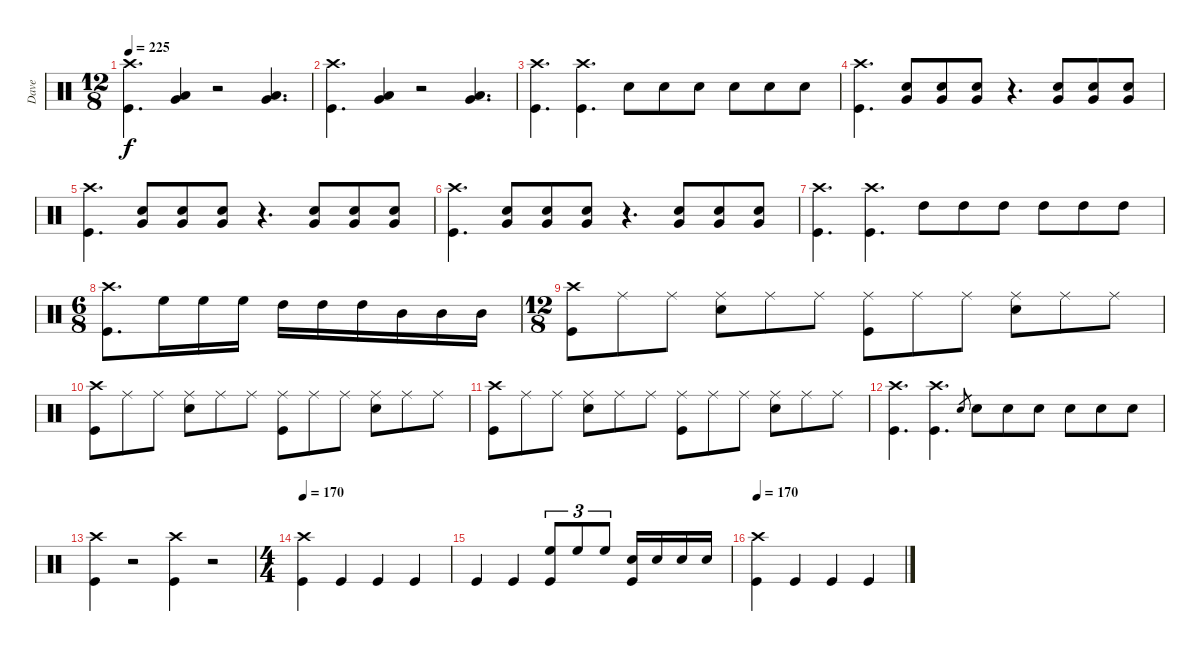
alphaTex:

\track ("Dave" "Dave") {instrument percussion}
\staff {score}
\articulation defaults
\ts (12 8)
\tempo 225
\clef neutral
\ks c
("Crash high (hit)" "Kick (hit)").4{d dy f} ("Very Low Tom (hit)" "Low Floor Tom (hit)").4 r.2 ("Very Low Tom (hit)" "Low Floor Tom (hit)").4{d} |
("Crash high (hit)" "Kick (hit)").4{d} ("Very Low Tom (hit)" "Low Floor Tom (hit)").4 r.2 ("Very Low Tom (hit)" "Low Floor Tom (hit)").4{d} |
("Crash high (hit)" "Kick (hit)").4{d} ("Crash high (hit)" "Kick (hit)").4{d} "Snare (hit) 2".8 "Snare (hit) 2".8 "Snare (hit) 2".8 "Snare (hit) 2".8 "Snare (hit) 2".8 "Snare (hit) 2".8 |
("Crash high (hit)" "Kick (hit)").4{d} ("Snare (hit) 2" "Very Low Tom (hit)").8 ("Snare (hit) 2" "Very Low Tom (hit)").8 ("Snare (hit) 2" "Very Low Tom (hit)").8 r.4{d} ("Snare (hit) 2" "Very Low Tom (hit)").8 ("Snare (hit) 2" "Very Low Tom (hit)").8 ("Snare (hit) 2" "Very Low Tom (hit)").8 |
("Crash high (hit)" "Kick (hit)").4{d} ("Snare (hit) 2" "Very Low Tom (hit)").8 ("Snare (hit) 2" "Very Low Tom (hit)").8 ("Snare (hit) 2" "Very Low Tom (hit)").8 r.4{d} ("Snare (hit) 2" "Very Low Tom (hit)").8 ("Snare (hit) 2" "Very Low Tom (hit)").8 ("Snare (hit) 2" "Very Low Tom (hit)").8 |
("Crash high (hit)" "Kick (hit)").4{d} ("Snare (hit) 2" "Very Low Tom (hit)").8 ("Snare (hit) 2" "Very Low Tom (hit)").8 ("Snare (hit) 2" "Very Low Tom (hit)").8 r.4{d} ("Snare (hit) 2" "Very Low Tom (hit)").8 ("Snare (hit) 2" "Very Low Tom (hit)").8 ("Snare (hit) 2" "Very Low Tom (hit)").8 |
("Crash high (hit)" "Kick (hit)").4{d} ("Crash high (hit)" "Kick (hit)").4{d} "High Tom (hit)".8 "High Tom (hit)".8 "High Tom (hit)".8 "High Tom (hit)".8 "High Tom (hit)".8 "High Tom (hit)".8 |
\ts (6 8)
("Crash high (hit)" "Kick (hit)").8{d} "High Floor Tom (hit)".16 "High Floor Tom (hit)".16 "High Floor Tom (hit)".16 "High Tom (hit)".16 "High Tom (hit)".16 "High Tom (hit)".16 "Mid Tom (hit)".16 "Mid Tom (hit)".16 "Mid Tom (hit)".16 |
\ts (12 8)
("Crash high (hit)" "Kick (hit)").8 "Ride (middle)".8 "Ride (middle)".8 ("Ride (middle)" "Snare (hit) 2").8 "Ride (middle)".8 "Ride (middle)".8 ("Ride (middle)" "Kick (hit)").8 "Ride (middle)".8 "Ride (middle)".8 ("Ride (middle)" "Snare (hit) 2").8 "Ride (middle)".8 "Ride (middle)".8 |
("Crash high (hit)" "Kick (hit)").8 "Ride (middle)".8 "Ride (middle)".8 ("Ride (middle)" "Snare (hit) 2").8 "Ride (middle)".8 "Ride (middle)".8 ("Ride (middle)" "Kick (hit)").8 "Ride (middle)".8 "Ride (middle)".8 ("Ride (middle)" "Snare (hit) 2").8 "Ride (middle)".8 "Ride (middle)".8 |
("Crash high (hit)" "Kick (hit)").8 "Ride (middle)".8 "Ride (middle)".8 ("Ride (middle)" "Snare (hit) 2").8 "Ride (middle)".8 "Ride (middle)".8 ("Ride (middle)" "Kick (hit)").8 "Ride (middle)".8 "Ride (middle)".8 ("Ride (middle)" "Snare (hit) 2").8 "Ride (middle)".8 "Ride (middle)".8 |
("Crash high (hit)" "Kick (hit)").4{d} ("Crash high (hit)" "Kick (hit)").4{d} "Snare (hit) 2".8{gr} "Snare (hit) 2".8 "Snare (hit) 2".8 "Snare (hit) 2".8 "Snare (hit) 2".8 "Snare (hit) 2".8 "Snare (hit) 2".8 |
("Crash high (hit)" "Kick (hit)").4{volume 16} r.2{volume 0} ("Crash high (hit)" "Kick (hit)").4{volume 16} r.2{volume 0} |
\ts (4 4)
\tempo 170
("Crash high (hit)" "Kick (hit)").4{volume 16} "Kick (hit)".4 "Kick (hit)".4 "Kick (hit)".4 |
"Kick (hit)".4 "Kick (hit)".4 ("High Floor Tom (hit)" "Kick (hit)").8{tu (3 2)} "High Floor Tom (hit)".8{tu (3 2)} "High Floor Tom (hit)".8{tu (3 2)} ("Snare (hit) 2" "Kick (hit)").16 "Snare (hit) 2".16 "Snare (hit) 2".16 "Snare (hit) 2".16 |
\tempo 170
("Crash high (hit)" "Kick (hit)").4 "Kick (hit)".4 "Kick (hit)".4 "Kick (hit)".4
